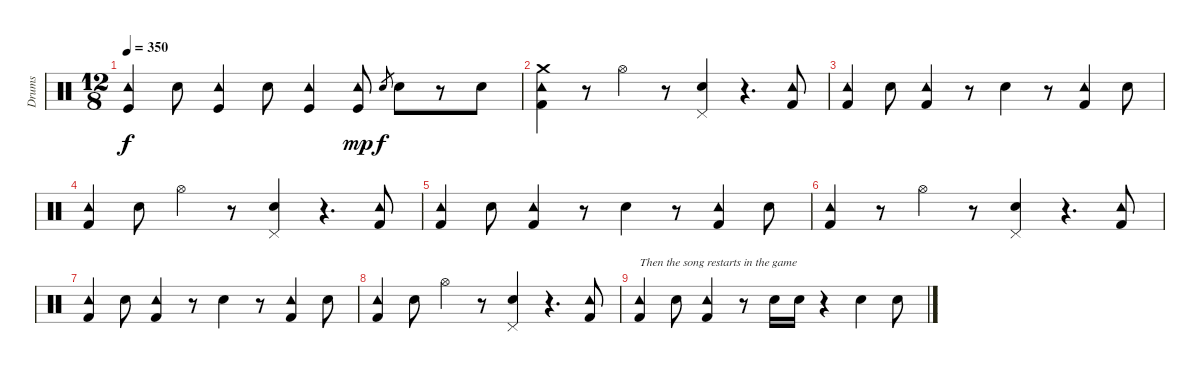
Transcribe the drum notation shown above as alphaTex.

\track ("Drums" "Drums") {instrument percussion}
\staff {score}
\articulation defaults
\ts (12 8)
\tempo 350
\clef neutral
\ks c
("Kick (hit)" "Tambourine (hit)").4{dy f} "Snare (hit) 2".8 ("Kick (hit)" "Tambourine (hit)").4 "Snare (hit) 2".8 ("Kick (hit)" "Tambourine (hit)").4 ("Kick (hit)" "Tambourine (hit)").8{dy mp} "Snare (hit) 2".8{gr dy f} "Snare (hit) 2".8 r.8 "Snare (hit) 2".8 |
("Kick (hit) 2" "Crash medium (hit)" "Tambourine (hit)").4 r.8 "Hi-Hat (open)".4 r.8 ("Snare (hit) 2" "Pedal Hi-Hat (hit)").4 r.4{d} ("Kick (hit) 2" "Tambourine (hit)").8 |
("Kick (hit) 2" "Tambourine (hit)").4 "Snare (hit) 2".8 ("Kick (hit) 2" "Tambourine (hit)").4 r.8 "Snare (hit) 2".4 r.8 ("Kick (hit) 2" "Tambourine (hit)").4 "Snare (hit) 2".8 |
("Kick (hit) 2" "Tambourine (hit)").4 "Snare (hit) 2".8 "Hi-Hat (open)".4 r.8 ("Snare (hit) 2" "Pedal Hi-Hat (hit)").4 r.4{d} ("Kick (hit) 2" "Tambourine (hit)").8 |
("Kick (hit) 2" "Tambourine (hit)").4 "Snare (hit) 2".8 ("Kick (hit) 2" "Tambourine (hit)").4 r.8 "Snare (hit) 2".4 r.8 ("Kick (hit) 2" "Tambourine (hit)").4 "Snare (hit) 2".8 |
("Kick (hit) 2" "Tambourine (hit)").4 r.8 "Hi-Hat (open)".4 r.8 ("Snare (hit) 2" "Pedal Hi-Hat (hit)").4 r.4{d} ("Kick (hit) 2" "Tambourine (hit)").8 |
("Kick (hit) 2" "Tambourine (hit)").4 "Snare (hit) 2".8 ("Kick (hit) 2" "Tambourine (hit)").4 r.8 "Snare (hit) 2".4 r.8 ("Kick (hit) 2" "Tambourine (hit)").4 "Snare (hit) 2".8 |
("Kick (hit) 2" "Tambourine (hit)").4 "Snare (hit) 2".8 "Hi-Hat (open)".4 r.8 ("Snare (hit) 2" "Pedal Hi-Hat (hit)").4 r.4{d} ("Kick (hit) 2" "Tambourine (hit)").8 |
("Kick (hit) 2" "Tambourine (hit)").4{txt "Then the song restarts in the game"} "Snare (hit) 2".8 ("Kick (hit) 2" "Tambourine (hit)").4 r.8 "Snare (hit) 2".16 "Snare (hit) 2".16 r.4 "Snare (hit) 2".4 "Snare (hit) 2".8
